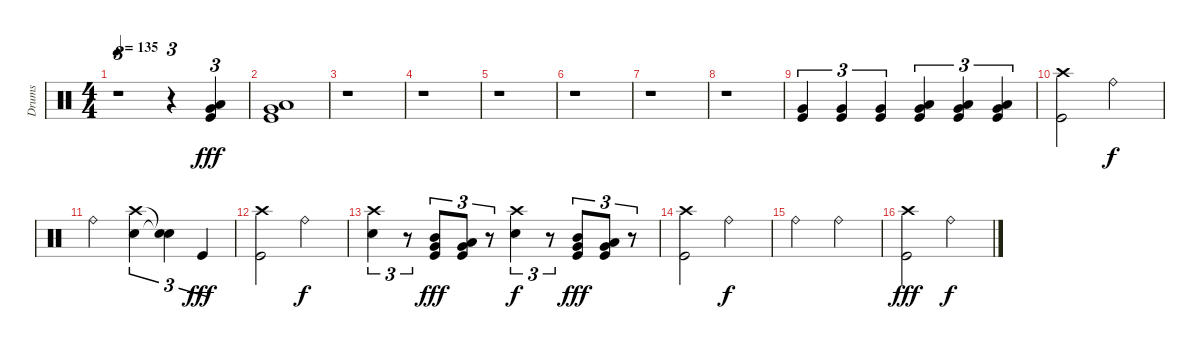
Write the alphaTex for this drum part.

\track ("Drums" "Drums") {instrument percussion}
\staff {score}
\articulation defaults
\ts (4 4)
\tempo 135
\clef neutral
\ks c
r.1{tu (3 2) dy f} r.4{tu (3 2)} ("Low Tom (hit)" "Very Low Tom (hit)" "Kick (hit)").4{tu (3 2) dy fff} |
("Low Tom (hit)" "Very Low Tom (hit)" "Kick (hit)").1 |
r.1 |
r.1 |
r.1 |
r.1 |
r.1 |
r.1 |
("Very Low Tom (hit)" "Kick (hit)").4{tu (3 2)} ("Very Low Tom (hit)" "Kick (hit)").4{tu (3 2)} ("Very Low Tom (hit)" "Kick (hit)").4{tu (3 2)} ("Low Tom (hit)" "Very Low Tom (hit)" "Kick (hit)").4{tu (3 2)} ("Low Tom (hit)" "Very Low Tom (hit)" "Kick (hit)").4{tu (3 2)} ("Low Tom (hit)" "Very Low Tom (hit)" "Kick (hit)").4{tu (3 2)} |
("Crash high (hit)" "Kick (hit)").2 "Ride (bell)".2{dy f} |
"Ride (bell)".2 ("Crash high (hit)" "Electric Snare (hit)").4{tu (3 2)} ("Snare (hit)"{t} "Snare (hit)"{t}).4{tu (3 2)} "Kick (hit)".4{tu (3 2) dy fff} |
("Crash high (hit)" "Kick (hit)").2 "Ride (bell)".2{dy f} |
("Crash high (hit)" "Electric Snare (hit)").4{tu (3 2)} r.8{tu (3 2)} ("Mid Tom (hit)" "Very Low Tom (hit)" "Kick (hit)").8{tu (3 2) dy fff balance 6} ("Low Tom (hit)" "Very Low Tom (hit)" "Kick (hit)").8{tu (3 2)} r.8{tu (3 2) balance 8} ("Crash high (hit)" "Electric Snare (hit)").4{tu (3 2) dy f} r.8{tu (3 2)} ("Mid Tom (hit)" "Very Low Tom (hit)" "Kick (hit)").8{tu (3 2) dy fff balance 6} ("Low Tom (hit)" "Very Low Tom (hit)" "Kick (hit)").8{tu (3 2)} r.8{tu (3 2) balance 8} |
("Crash high (hit)" "Kick (hit)").2 "Ride (bell)".2{dy f} |
"Ride (bell)".2 "Ride (bell)".2 |
("Crash high (hit)" "Kick (hit)").2{dy fff} "Ride (bell)".2{dy f}
